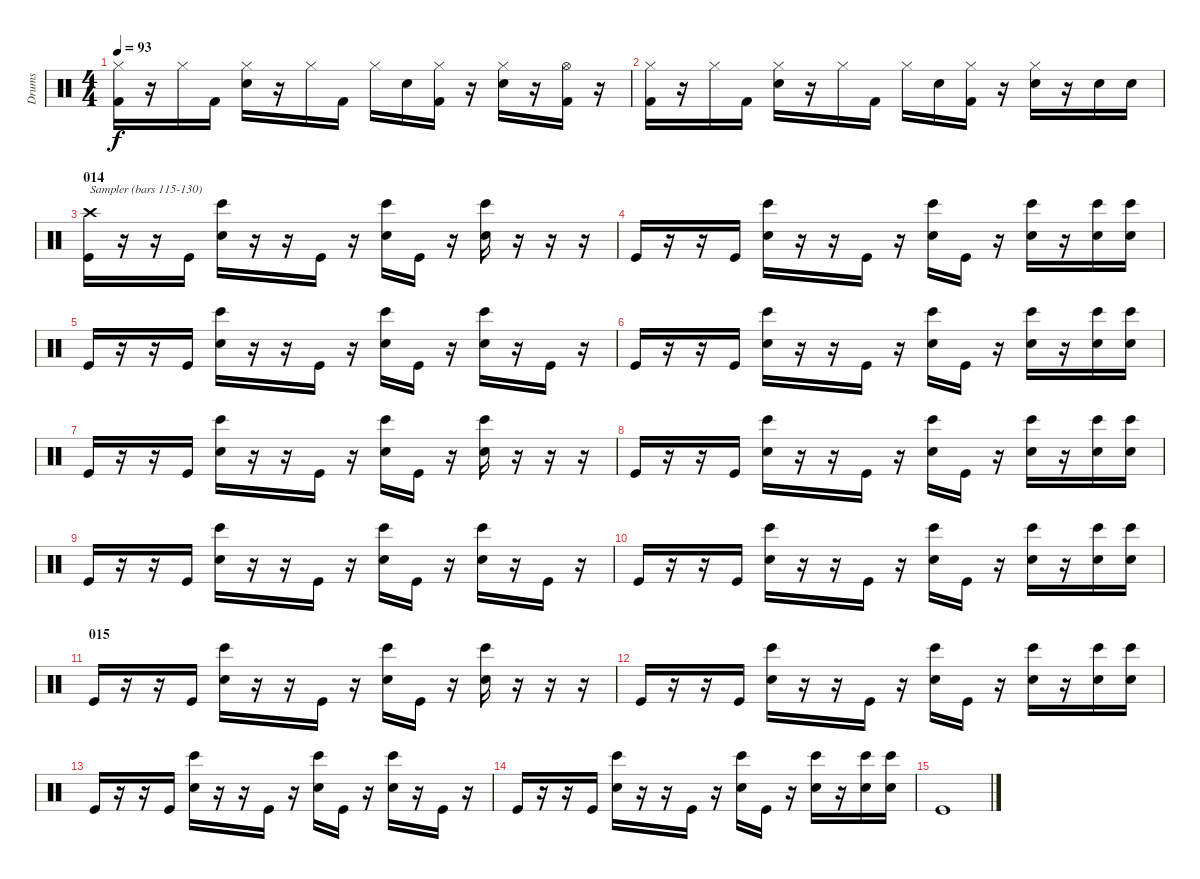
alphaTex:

\track ("Drums" "Drums") {instrument percussion}
\staff {score}
\articulation defaults
\ts (4 4)
\tempo 93
\clef neutral
\ks c
("Hi-Hat (closed)" "Kick (hit) 2").16{dy f} r.16 "Hi-Hat (closed)".16 "Kick (hit) 2".16 ("Hi-Hat (closed)" "Electric Snare (hit)").16 r.16 "Hi-Hat (closed)".16 "Kick (hit) 2".16 "Hi-Hat (closed)".16 "Electric Snare (hit)".16 ("Hi-Hat (closed)" "Kick (hit) 2").16 r.16 ("Hi-Hat (closed)" "Electric Snare (hit)").16 r.16 ("Hi-Hat (open)" "Kick (hit) 2").16 r.16 |
("Hi-Hat (closed)" "Kick (hit) 2").16 r.16 "Hi-Hat (closed)".16 "Kick (hit) 2".16 ("Hi-Hat (closed)" "Electric Snare (hit)").16 r.16 "Hi-Hat (closed)".16 "Kick (hit) 2".16 "Hi-Hat (closed)".16 "Electric Snare (hit)".16 ("Hi-Hat (closed)" "Kick (hit) 2").16 r.16 ("Hi-Hat (closed)" "Electric Snare (hit)").16 r.16 "Electric Snare (hit)".16 "Electric Snare (hit)".16 |
\section ("" "014")
("Crash high (hit)" "Kick (hit)").16{txt "Sampler (bars 115-130)"} r.16 r.16 "Kick (hit)".16 ("Hand Clap (hit)" "Bongo High (hit)").16 r.16 r.16 "Kick (hit)".16 r.16 ("Hand Clap (hit)" "Bongo High (hit)").16 "Kick (hit)".16 r.16 ("Hand Clap (hit)" "Bongo High (hit)").16 r.16 r.16 r.16 |
"Kick (hit)".16 r.16 r.16 "Kick (hit)".16 ("Hand Clap (hit)" "Bongo High (hit)").16 r.16 r.16 "Kick (hit)".16 r.16 ("Hand Clap (hit)" "Bongo High (hit)").16 "Kick (hit)".16 r.16 ("Hand Clap (hit)" "Bongo High (hit)").16 r.16 ("Hand Clap (hit)" "Bongo High (hit)").16 ("Hand Clap (hit)" "Bongo High (hit)").16 |
"Kick (hit)".16 r.16 r.16 "Kick (hit)".16 ("Hand Clap (hit)" "Bongo High (hit)").16 r.16 r.16 "Kick (hit)".16 r.16 ("Hand Clap (hit)" "Bongo High (hit)").16 "Kick (hit)".16 r.16 ("Hand Clap (hit)" "Bongo High (hit)").16 r.16 "Kick (hit)".16 r.16 |
"Kick (hit)".16 r.16 r.16 "Kick (hit)".16 ("Hand Clap (hit)" "Bongo High (hit)").16 r.16 r.16 "Kick (hit)".16 r.16 ("Hand Clap (hit)" "Bongo High (hit)").16 "Kick (hit)".16 r.16 ("Hand Clap (hit)" "Bongo High (hit)").16 r.16 ("Hand Clap (hit)" "Bongo High (hit)").16 ("Hand Clap (hit)" "Bongo High (hit)").16 |
"Kick (hit)".16 r.16 r.16 "Kick (hit)".16 ("Hand Clap (hit)" "Bongo High (hit)").16 r.16 r.16 "Kick (hit)".16 r.16 ("Hand Clap (hit)" "Bongo High (hit)").16 "Kick (hit)".16 r.16 ("Hand Clap (hit)" "Bongo High (hit)").16 r.16 r.16 r.16 |
"Kick (hit)".16 r.16 r.16 "Kick (hit)".16 ("Hand Clap (hit)" "Bongo High (hit)").16 r.16 r.16 "Kick (hit)".16 r.16 ("Hand Clap (hit)" "Bongo High (hit)").16 "Kick (hit)".16 r.16 ("Hand Clap (hit)" "Bongo High (hit)").16 r.16 ("Hand Clap (hit)" "Bongo High (hit)").16 ("Hand Clap (hit)" "Bongo High (hit)").16 |
"Kick (hit)".16 r.16 r.16 "Kick (hit)".16 ("Hand Clap (hit)" "Bongo High (hit)").16 r.16 r.16 "Kick (hit)".16 r.16 ("Hand Clap (hit)" "Bongo High (hit)").16 "Kick (hit)".16 r.16 ("Hand Clap (hit)" "Bongo High (hit)").16 r.16 "Kick (hit)".16 r.16 |
"Kick (hit)".16 r.16 r.16 "Kick (hit)".16 ("Hand Clap (hit)" "Bongo High (hit)").16 r.16 r.16 "Kick (hit)".16 r.16 ("Hand Clap (hit)" "Bongo High (hit)").16 "Kick (hit)".16 r.16 ("Hand Clap (hit)" "Bongo High (hit)").16 r.16 ("Hand Clap (hit)" "Bongo High (hit)").16 ("Hand Clap (hit)" "Bongo High (hit)").16 |
\section ("" "015")
"Kick (hit)".16 r.16 r.16 "Kick (hit)".16 ("Hand Clap (hit)" "Bongo High (hit)").16 r.16 r.16 "Kick (hit)".16 r.16 ("Hand Clap (hit)" "Bongo High (hit)").16 "Kick (hit)".16 r.16 ("Hand Clap (hit)" "Bongo High (hit)").16 r.16 r.16 r.16 |
"Kick (hit)".16 r.16 r.16 "Kick (hit)".16 ("Hand Clap (hit)" "Bongo High (hit)").16 r.16 r.16 "Kick (hit)".16 r.16 ("Hand Clap (hit)" "Bongo High (hit)").16 "Kick (hit)".16 r.16 ("Hand Clap (hit)" "Bongo High (hit)").16 r.16 ("Hand Clap (hit)" "Bongo High (hit)").16 ("Hand Clap (hit)" "Bongo High (hit)").16 |
"Kick (hit)".16 r.16 r.16 "Kick (hit)".16 ("Hand Clap (hit)" "Bongo High (hit)").16 r.16 r.16 "Kick (hit)".16 r.16 ("Hand Clap (hit)" "Bongo High (hit)").16 "Kick (hit)".16 r.16 ("Hand Clap (hit)" "Bongo High (hit)").16 r.16 "Kick (hit)".16 r.16 |
"Kick (hit)".16 r.16 r.16 "Kick (hit)".16 ("Hand Clap (hit)" "Bongo High (hit)").16 r.16 r.16 "Kick (hit)".16 r.16 ("Hand Clap (hit)" "Bongo High (hit)").16 "Kick (hit)".16 r.16 ("Hand Clap (hit)" "Bongo High (hit)").16 r.16 ("Hand Clap (hit)" "Bongo High (hit)").16 ("Hand Clap (hit)" "Bongo High (hit)").16 |
"Kick (hit)".1
